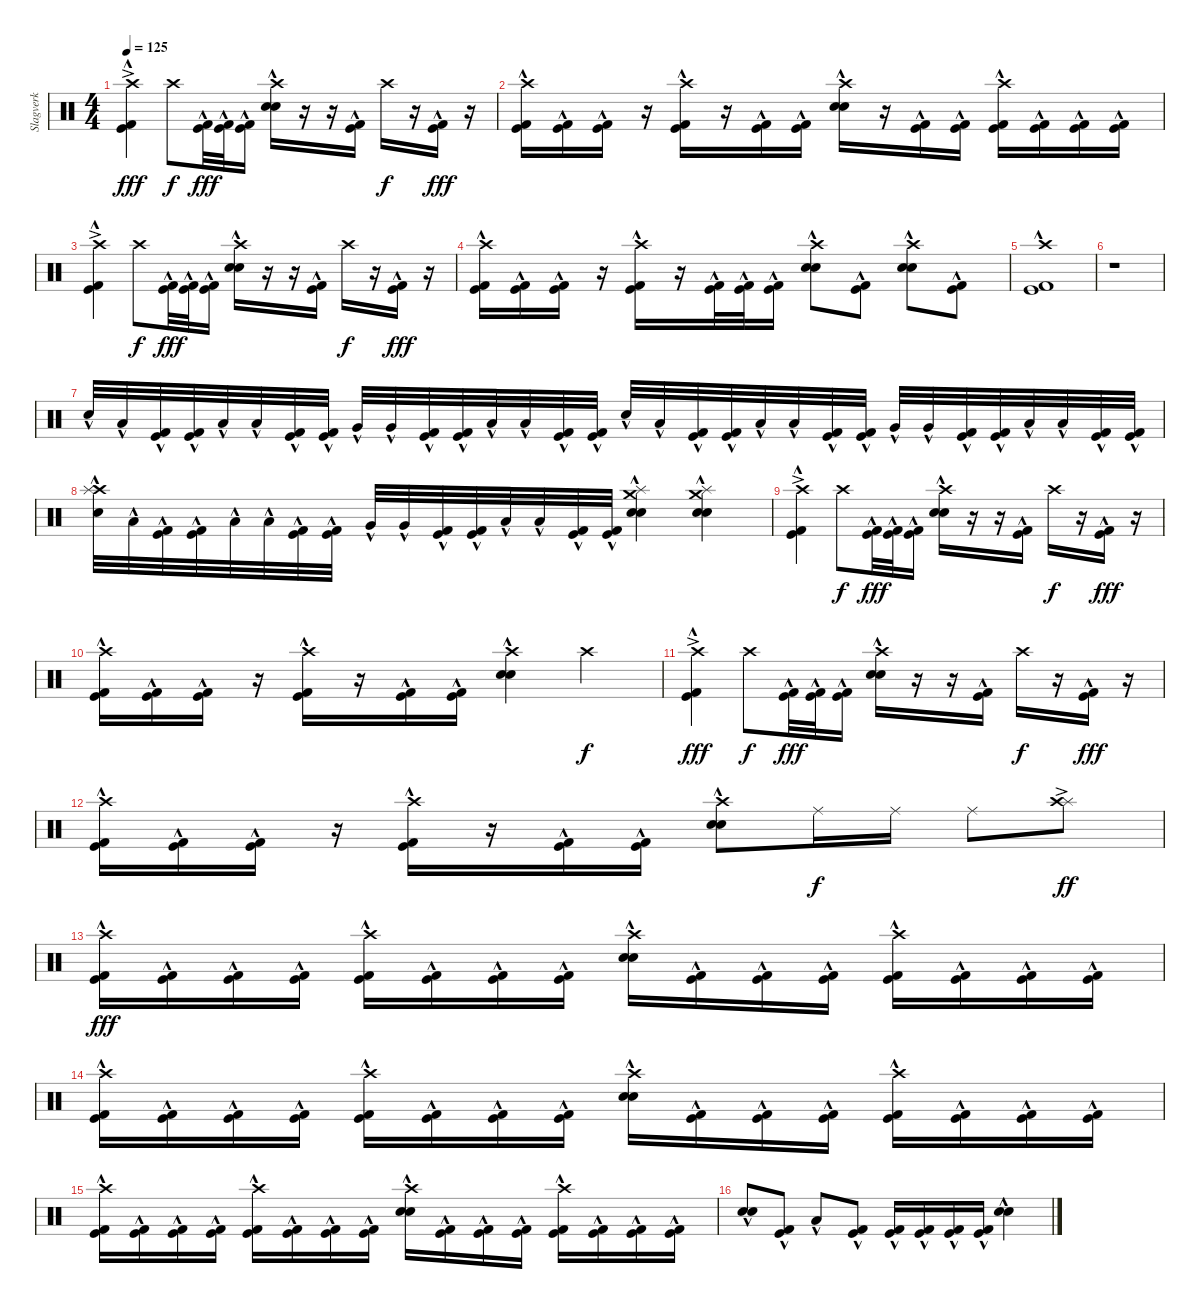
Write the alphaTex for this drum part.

\track ("Slagverk" "Slagverk") {instrument percussion}
\staff {score}
\articulation defaults
\ts (4 4)
\tempo 125
\clef neutral
\ks c
("Crash high (hit)"{ac} "Kick (hit)"{hac} "Kick (hit) 2"{hac}).4{dy fff} "Crash high (hit)".8{dy f} ("Kick (hit)"{hac} "Kick (hit) 2"{hac}).32{dy fff} ("Kick (hit)"{hac} "Kick (hit) 2"{hac}).32 ("Kick (hit)"{hac} "Kick (hit) 2"{hac}).16 ("Crash high (hit)" "Electric Snare (hit)"{hac} "Snare (hit) 2").16 r.16 r.16 ("Kick (hit)"{hac} "Kick (hit) 2"{hac}).16 "Crash high (hit)".16{dy f} r.16 ("Kick (hit)"{hac} "Kick (hit) 2"{hac}).16{dy fff} r.16 |
("Crash high (hit)" "Kick (hit)"{hac} "Kick (hit) 2"{hac}).16 ("Kick (hit)"{hac} "Kick (hit) 2"{hac}).16 ("Kick (hit)"{hac} "Kick (hit) 2"{hac}).16 r.16 ("Crash high (hit)" "Kick (hit)"{hac} "Kick (hit) 2"{hac}).16 r.16 ("Kick (hit)"{hac} "Kick (hit) 2"{hac}).16 ("Kick (hit)"{hac} "Kick (hit) 2"{hac}).16 ("Crash high (hit)" "Electric Snare (hit)"{hac} "Snare (hit) 2").16 r.16 ("Kick (hit)"{hac} "Kick (hit) 2"{hac}).16 ("Kick (hit)"{hac} "Kick (hit) 2"{hac}).16 ("Crash high (hit)" "Kick (hit)"{hac} "Kick (hit) 2"{hac}).16 ("Kick (hit)"{hac} "Kick (hit) 2"{hac}).16 ("Kick (hit)"{hac} "Kick (hit) 2"{hac}).16 ("Kick (hit)"{hac} "Kick (hit) 2"{hac}).16 |
("Crash high (hit)"{ac} "Kick (hit)"{hac} "Kick (hit) 2"{hac}).4 "Crash high (hit)".8{dy f} ("Kick (hit)"{hac} "Kick (hit) 2"{hac}).32{dy fff} ("Kick (hit)"{hac} "Kick (hit) 2"{hac}).32 ("Kick (hit)"{hac} "Kick (hit) 2"{hac}).16 ("Crash high (hit)" "Electric Snare (hit)"{hac} "Snare (hit) 2").16 r.16 r.16 ("Kick (hit)"{hac} "Kick (hit) 2"{hac}).16 "Crash high (hit)".16{dy f} r.16 ("Kick (hit)"{hac} "Kick (hit) 2"{hac}).16{dy fff} r.16 |
("Crash high (hit)" "Kick (hit)"{hac} "Kick (hit) 2"{hac}).16 ("Kick (hit)"{hac} "Kick (hit) 2"{hac}).16 ("Kick (hit)"{hac} "Kick (hit) 2"{hac}).16 r.16 ("Crash high (hit)" "Kick (hit)"{hac} "Kick (hit) 2"{hac}).16 r.16 ("Kick (hit)"{hac} "Kick (hit) 2"{hac}).32 ("Kick (hit)"{hac} "Kick (hit) 2"{hac}).32 ("Kick (hit)"{hac} "Kick (hit) 2"{hac}).16 ("Crash high (hit)" "Electric Snare (hit)"{hac} "Snare (hit) 2").8 ("Kick (hit)"{hac} "Kick (hit) 2"{hac}).8 ("Crash high (hit)" "Electric Snare (hit)"{hac} "Snare (hit) 2").8 ("Kick (hit)"{hac} "Kick (hit) 2"{hac}).8 |
("Crash high (hit)" "Kick (hit)"{hac} "Kick (hit) 2"{hac}).1 |
r.1 |
"Electric Snare (hit)"{hac}.32 "Low Tom (hit)"{hac}.32 ("Kick (hit)"{hac} "Kick (hit) 2"{hac}).32 ("Kick (hit)"{hac} "Kick (hit) 2"{hac}).32 "Low Tom (hit)"{hac}.32 "Low Tom (hit)"{hac}.32 ("Kick (hit)"{hac} "Kick (hit) 2"{hac}).32 ("Kick (hit)"{hac} "Kick (hit) 2"{hac}).32 "Very Low Tom (hit)"{hac}.32 "Very Low Tom (hit)"{hac}.32 ("Kick (hit)"{hac} "Kick (hit) 2"{hac}).32 ("Kick (hit)"{hac} "Kick (hit) 2"{hac}).32 "Low Floor Tom (hit)"{hac}.32 "Low Floor Tom (hit)"{hac}.32 ("Kick (hit)"{hac} "Kick (hit) 2"{hac}).32 ("Kick (hit)"{hac} "Kick (hit) 2"{hac}).32 "Electric Snare (hit)"{hac}.32 "Low Tom (hit)"{hac}.32 ("Kick (hit)"{hac} "Kick (hit) 2"{hac}).32 ("Kick (hit)"{hac} "Kick (hit) 2"{hac}).32 "Low Tom (hit)"{hac}.32 "Low Tom (hit)"{hac}.32 ("Kick (hit)"{hac} "Kick (hit) 2"{hac}).32 ("Kick (hit)"{hac} "Kick (hit) 2"{hac}).32 "Very Low Tom (hit)"{hac}.32 "Very Low Tom (hit)"{hac}.32 ("Kick (hit)"{hac} "Kick (hit) 2"{hac}).32 ("Kick (hit)"{hac} "Kick (hit) 2"{hac}).32 "Low Floor Tom (hit)"{hac}.32 "Low Floor Tom (hit)"{hac}.32 ("Kick (hit)"{hac} "Kick (hit) 2"{hac}).32 ("Kick (hit)"{hac} "Kick (hit) 2"{hac}).32 |
("Crash high (hit)" "Splash (hit)"{hac} "Electric Snare (hit)"{hac}).32 "Low Tom (hit)"{hac}.32 ("Kick (hit)"{hac} "Kick (hit) 2"{hac}).32 ("Kick (hit)"{hac} "Kick (hit) 2"{hac}).32 "Low Tom (hit)"{hac}.32 "Low Tom (hit)"{hac}.32 ("Kick (hit)"{hac} "Kick (hit) 2"{hac}).32 ("Kick (hit)"{hac} "Kick (hit) 2"{hac}).32 "Very Low Tom (hit)"{hac}.32 "Very Low Tom (hit)"{hac}.32 ("Kick (hit)"{hac} "Kick (hit) 2"{hac}).32 ("Kick (hit)"{hac} "Kick (hit) 2"{hac}).32 "Low Floor Tom (hit)"{hac}.32 "Low Floor Tom (hit)"{hac}.32 ("Kick (hit)"{hac} "Kick (hit) 2"{hac}).32 ("Kick (hit)"{hac} "Kick (hit) 2"{hac}).32 ("Crash medium (hit)" "Splash (hit)"{hac} "Electric Snare (hit)"{hac} "Snare (hit) 2").4 ("Crash medium (hit)" "Splash (hit)"{hac} "Electric Snare (hit)"{hac} "Snare (hit) 2").4 |
("Crash high (hit)"{ac} "Kick (hit)"{hac} "Kick (hit) 2"{hac}).4 "Crash high (hit)".8{dy f} ("Kick (hit)"{hac} "Kick (hit) 2"{hac}).32{dy fff} ("Kick (hit)"{hac} "Kick (hit) 2"{hac}).32 ("Kick (hit)"{hac} "Kick (hit) 2"{hac}).16 ("Crash high (hit)" "Electric Snare (hit)"{hac} "Snare (hit) 2").16 r.16 r.16 ("Kick (hit)"{hac} "Kick (hit) 2"{hac}).16 "Crash high (hit)".16{dy f} r.16 ("Kick (hit)"{hac} "Kick (hit) 2"{hac}).16{dy fff} r.16 |
("Crash high (hit)" "Kick (hit)"{hac} "Kick (hit) 2"{hac}).16 ("Kick (hit)"{hac} "Kick (hit) 2"{hac}).16 ("Kick (hit)"{hac} "Kick (hit) 2"{hac}).16 r.16 ("Crash high (hit)" "Kick (hit)"{hac} "Kick (hit) 2"{hac}).16 r.16 ("Kick (hit)"{hac} "Kick (hit) 2"{hac}).16 ("Kick (hit)"{hac} "Kick (hit) 2"{hac}).16 ("Crash high (hit)" "Electric Snare (hit)"{hac} "Snare (hit) 2").4 "Crash high (hit)".4{dy f} |
("Crash high (hit)"{ac} "Kick (hit)"{hac} "Kick (hit) 2"{hac}).4{dy fff} "Crash high (hit)".8{dy f} ("Kick (hit)"{hac} "Kick (hit) 2"{hac}).32{dy fff} ("Kick (hit)"{hac} "Kick (hit) 2"{hac}).32 ("Kick (hit)"{hac} "Kick (hit) 2"{hac}).16 ("Crash high (hit)" "Electric Snare (hit)"{hac} "Snare (hit) 2").16 r.16 r.16 ("Kick (hit)"{hac} "Kick (hit) 2"{hac}).16 "Crash high (hit)".16{dy f} r.16 ("Kick (hit)"{hac} "Kick (hit) 2"{hac}).16{dy fff} r.16 |
("Crash high (hit)" "Kick (hit)"{hac} "Kick (hit) 2"{hac}).16 ("Kick (hit)"{hac} "Kick (hit) 2"{hac}).16 ("Kick (hit)"{hac} "Kick (hit) 2"{hac}).16 r.16 ("Crash high (hit)" "Kick (hit)"{hac} "Kick (hit) 2"{hac}).16 r.16 ("Kick (hit)"{hac} "Kick (hit) 2"{hac}).16 ("Kick (hit)"{hac} "Kick (hit) 2"{hac}).16 ("Crash high (hit)" "Electric Snare (hit)"{hac} "Snare (hit) 2").8 "Ride (middle)".16{dy f} "Ride (middle)".16 "Ride (middle)".8 ("Splash (hit)"{ac} "Crash high (hit)").8{dy ff} |
("Crash high (hit)" "Kick (hit)"{hac} "Kick (hit) 2"{hac}).16{dy fff} ("Kick (hit)"{hac} "Kick (hit) 2"{hac}).16 ("Kick (hit)"{hac} "Kick (hit) 2"{hac}).16 ("Kick (hit)"{hac} "Kick (hit) 2"{hac}).16 ("Crash high (hit)" "Kick (hit)"{hac} "Kick (hit) 2"{hac}).16 ("Kick (hit)"{hac} "Kick (hit) 2"{hac}).16 ("Kick (hit)"{hac} "Kick (hit) 2"{hac}).16 ("Kick (hit)"{hac} "Kick (hit) 2"{hac}).16 ("Crash high (hit)" "Electric Snare (hit)"{hac} "Snare (hit) 2").16 ("Kick (hit)"{hac} "Kick (hit) 2"{hac}).16 ("Kick (hit)"{hac} "Kick (hit) 2"{hac}).16 ("Kick (hit)"{hac} "Kick (hit) 2"{hac}).16 ("Crash high (hit)" "Kick (hit)"{hac} "Kick (hit) 2"{hac}).16 ("Kick (hit)"{hac} "Kick (hit) 2"{hac}).16 ("Kick (hit)"{hac} "Kick (hit) 2"{hac}).16 ("Kick (hit)"{hac} "Kick (hit) 2"{hac}).16 |
("Crash high (hit)" "Kick (hit)"{hac} "Kick (hit) 2"{hac}).16 ("Kick (hit)"{hac} "Kick (hit) 2"{hac}).16 ("Kick (hit)"{hac} "Kick (hit) 2"{hac}).16 ("Kick (hit)"{hac} "Kick (hit) 2"{hac}).16 ("Crash high (hit)" "Kick (hit)"{hac} "Kick (hit) 2"{hac}).16 ("Kick (hit)"{hac} "Kick (hit) 2"{hac}).16 ("Kick (hit)"{hac} "Kick (hit) 2"{hac}).16 ("Kick (hit)"{hac} "Kick (hit) 2"{hac}).16 ("Crash high (hit)" "Electric Snare (hit)"{hac} "Snare (hit) 2").16 ("Kick (hit)"{hac} "Kick (hit) 2"{hac}).16 ("Kick (hit)"{hac} "Kick (hit) 2"{hac}).16 ("Kick (hit)"{hac} "Kick (hit) 2"{hac}).16 ("Crash high (hit)" "Kick (hit)"{hac} "Kick (hit) 2"{hac}).16 ("Kick (hit)"{hac} "Kick (hit) 2"{hac}).16 ("Kick (hit)"{hac} "Kick (hit) 2"{hac}).16 ("Kick (hit)"{hac} "Kick (hit) 2"{hac}).16 |
("Crash high (hit)" "Kick (hit)"{hac} "Kick (hit) 2"{hac}).16 ("Kick (hit)"{hac} "Kick (hit) 2"{hac}).16 ("Kick (hit)"{hac} "Kick (hit) 2"{hac}).16 ("Kick (hit)"{hac} "Kick (hit) 2"{hac}).16 ("Crash high (hit)" "Kick (hit)"{hac} "Kick (hit) 2"{hac}).16 ("Kick (hit)"{hac} "Kick (hit) 2"{hac}).16 ("Kick (hit)"{hac} "Kick (hit) 2"{hac}).16 ("Kick (hit)"{hac} "Kick (hit) 2"{hac}).16 ("Crash high (hit)" "Electric Snare (hit)"{hac} "Snare (hit) 2").16 ("Kick (hit)"{hac} "Kick (hit) 2"{hac}).16 ("Kick (hit)"{hac} "Kick (hit) 2"{hac}).16 ("Kick (hit)"{hac} "Kick (hit) 2"{hac}).16 ("Crash high (hit)" "Kick (hit)"{hac} "Kick (hit) 2"{hac}).16 ("Kick (hit)"{hac} "Kick (hit) 2"{hac}).16 ("Kick (hit)"{hac} "Kick (hit) 2"{hac}).16 ("Kick (hit)"{hac} "Kick (hit) 2"{hac}).16 |
("Electric Snare (hit)"{hac} "Snare (hit) 2").8 ("Kick (hit)"{hac} "Kick (hit) 2"{hac}).8 "Low Tom (hit)"{hac}.8 ("Kick (hit)"{hac} "Kick (hit) 2"{hac}).8 ("Kick (hit)"{hac} "Kick (hit) 2"{hac}).16 ("Kick (hit)"{hac} "Kick (hit) 2"{hac}).16 ("Kick (hit)"{hac} "Kick (hit) 2"{hac}).16 ("Kick (hit)"{hac} "Kick (hit) 2"{hac}).16 ("Electric Snare (hit)"{hac} "Snare (hit) 2").4
